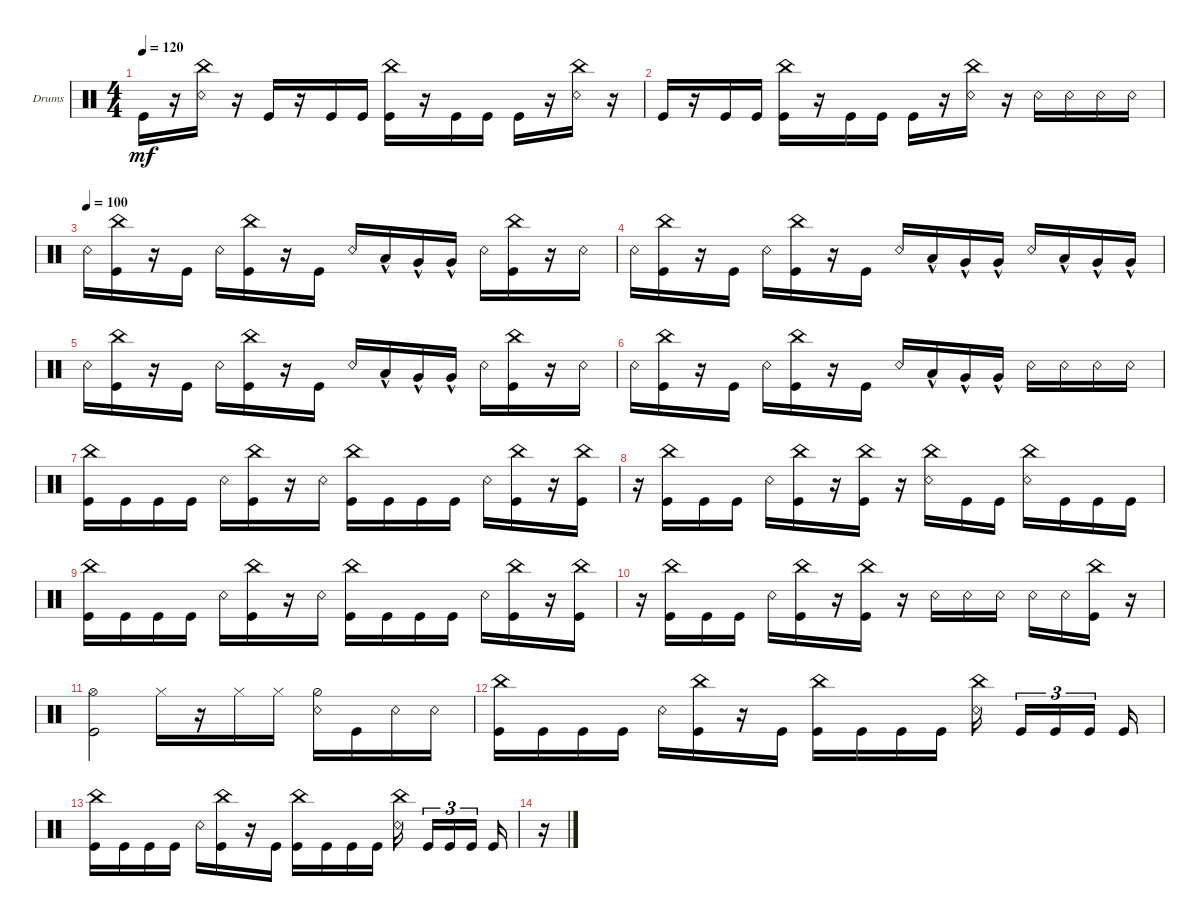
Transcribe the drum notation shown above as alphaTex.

\defaultSystemsLayout 4
\bracketExtendMode groupsimilarinstruments
\firstSystemTrackNameOrientation horizontal
\otherSystemsTrackNameOrientation horizontal
\track ("Drumkit" "Drums") {instrument percussion}
\staff {score}
\articulation defaults
\ts (4 4)
\tempo 120
\clef neutral
\ks c "Kick (hit)".16{dy mf}
r.16 ("Snare (rim shot)" "China (hit)").16 r.16 "Kick (hit)".16 r.16 "Kick (hit)".16 "Kick (hit)".16 ("Kick (hit)" "China (hit)").16 r.16 "Kick (hit)".16 "Kick (hit)".16 "Kick (hit)".16 r.16 ("Snare (rim shot)" "China (hit)").16 r.16 |
"Kick (hit)".16 r.16 "Kick (hit)".16 "Kick (hit)".16 ("Kick (hit)" "China (hit)").16 r.16 "Kick (hit)".16 "Kick (hit)".16 "Kick (hit)".16 r.16 ("Snare (rim shot)" "China (hit)").16 r.16 "Snare (rim shot)".16 "Snare (rim shot)".16 "Snare (rim shot)".16 "Snare (rim shot)".16 |
\tempo (100)
"Snare (rim shot)".16 ("China (hit)" "Kick (hit)").16 r.16 "Kick (hit)".16 "Snare (rim shot)".16 ("China (hit)" "Kick (hit)").16 r.16 "Kick (hit)".16 "Snare (rim shot)".16 "Low Tom (hit)"{hac}.16 "Very Low Tom (hit)"{hac}.16 "Very Low Tom (hit)"{hac}.16 "Snare (rim shot)".16 ("China (hit)" "Kick (hit)").16 r.16 "Snare (rim shot)".16 |
"Snare (rim shot)".16 ("China (hit)" "Kick (hit)").16 r.16 "Kick (hit)".16 "Snare (rim shot)".16 ("China (hit)" "Kick (hit)").16 r.16 "Kick (hit)".16 "Snare (rim shot)".16 "Low Tom (hit)"{hac}.16 "Very Low Tom (hit)"{hac}.16 "Very Low Tom (hit)"{hac}.16 "Snare (rim shot)".16 "Low Tom (hit)"{hac}.16 "Very Low Tom (hit)"{hac}.16 "Very Low Tom (hit)"{hac}.16 |
"Snare (rim shot)".16 ("China (hit)" "Kick (hit)").16 r.16 "Kick (hit)".16 "Snare (rim shot)".16 ("China (hit)" "Kick (hit)").16 r.16 "Kick (hit)".16 "Snare (rim shot)".16 "Low Tom (hit)"{hac}.16 "Very Low Tom (hit)"{hac}.16 "Very Low Tom (hit)"{hac}.16 "Snare (rim shot)".16 ("China (hit)" "Kick (hit)").16 r.16 "Snare (rim shot)".16 |
"Snare (rim shot)".16 ("China (hit)" "Kick (hit)").16 r.16 "Kick (hit)".16 "Snare (rim shot)".16 ("China (hit)" "Kick (hit)").16 r.16 "Kick (hit)".16 "Snare (rim shot)".16 "Low Tom (hit)"{hac}.16 "Very Low Tom (hit)"{hac}.16 "Very Low Tom (hit)"{hac}.16 "Snare (rim shot)".16 "Snare (rim shot)".16 "Snare (rim shot)".16 "Snare (rim shot)".16 |
("Kick (hit)" "China (hit)").16 "Kick (hit)".16 "Kick (hit)".16 "Kick (hit)".16 "Snare (rim shot)".16 ("China (hit)" "Kick (hit)").16 r.16 "Snare (rim shot)".16 ("Kick (hit)" "China (hit)").16 "Kick (hit)".16 "Kick (hit)".16 "Kick (hit)".16 "Snare (rim shot)".16 ("Kick (hit)" "China (hit)").16 r.16 ("Kick (hit)" "China (hit)").16 |
r.16 ("China (hit)" "Kick (hit)").16 "Kick (hit)".16 "Kick (hit)".16 "Snare (rim shot)".16 ("Kick (hit)" "China (hit)").16 r.16 ("China (hit)" "Kick (hit)").16 r.16 ("Snare (rim shot)" "China (hit)").16 "Kick (hit)".16 "Kick (hit)".16 ("Snare (rim shot)" "China (hit)").16 "Kick (hit)".16 "Kick (hit)".16 "Kick (hit)".16 |
("Kick (hit)" "China (hit)").16 "Kick (hit)".16 "Kick (hit)".16 "Kick (hit)".16 "Snare (rim shot)".16 ("China (hit)" "Kick (hit)").16 r.16 "Snare (rim shot)".16 ("Kick (hit)" "China (hit)").16 "Kick (hit)".16 "Kick (hit)".16 "Kick (hit)".16 "Snare (rim shot)".16 ("Kick (hit)" "China (hit)").16 r.16 ("Kick (hit)" "China (hit)").16 |
r.16 ("China (hit)" "Kick (hit)").16 "Kick (hit)".16 "Kick (hit)".16 "Snare (rim shot)".16 ("Kick (hit)" "China (hit)").16 r.16 ("China (hit)" "Kick (hit)").16 r.16 "Snare (rim shot)".16 "Snare (rim shot)".16 "Snare (rim shot)".16 "Snare (rim shot)".16 "Snare (rim shot)".16 ("China (hit)" "Kick (hit)").16 r.16 |
("Kick (hit)" "Hi-Hat (open)").2 "Hi-Hat (closed)".16 r.16 "Hi-Hat (closed)".16 "Hi-Hat (closed)".16 ("Hi-Hat (half)" "Snare (rim shot)").16 "Kick (hit)".16 "Snare (rim shot)".16 "Snare (rim shot)".16 |
("Kick (hit)" "China (hit)").16 "Kick (hit)".16 "Kick (hit)".16 "Kick (hit)".16 "Snare (rim shot)".16 ("Kick (hit)" "China (hit)").16 r.16 "Kick (hit)".16 ("Kick (hit)" "China (hit)").16 "Kick (hit)".16 "Kick (hit)".16 "Kick (hit)".16 ("China (hit)" "Snare (rim shot)").16 "Kick (hit)".16{tu (3 2)} "Kick (hit)".16{tu (3 2)} "Kick (hit)".16{tu (3 2)} "Kick (hit)".16 |
("Kick (hit)" "China (hit)").16 "Kick (hit)".16 "Kick (hit)".16 "Kick (hit)".16 "Snare (rim shot)".16 ("Kick (hit)" "China (hit)").16 r.16 "Kick (hit)".16 ("Kick (hit)" "China (hit)").16 "Kick (hit)".16 "Kick (hit)".16 "Kick (hit)".16 ("China (hit)" "Snare (rim shot)").16 "Kick (hit)".16{tu (3 2)} "Kick (hit)".16{tu (3 2)} "Kick (hit)".16{tu (3 2)} "Kick (hit)".16 |
r.16
